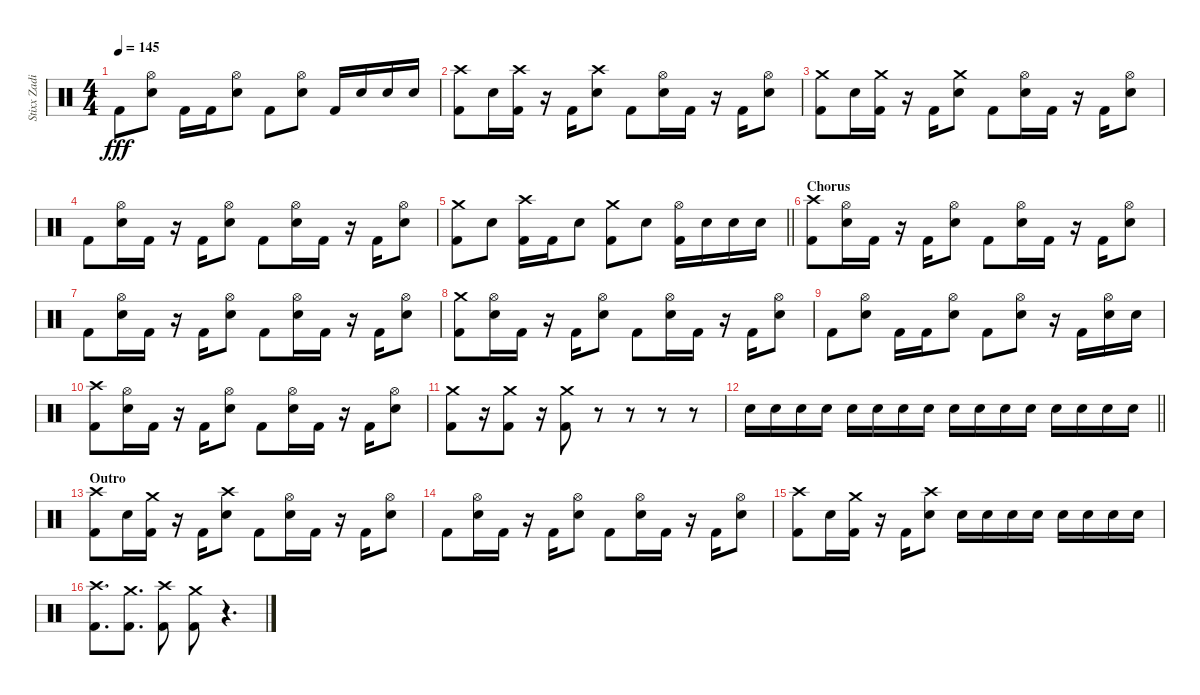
\track ("Stixx Zadina (Sticks it in ya)" "Stixx Zadi") {instrument percussion}
\staff {score}
\articulation defaults
\ts (4 4)
\tempo 145
\clef neutral
\ks c "Kick (hit) 2".8{dy fff}
("Hi-Hat (open)" "Electric Snare (hit)").8 "Kick (hit) 2".16 "Kick (hit) 2".16 ("Hi-Hat (open)" "Electric Snare (hit)").8 "Kick (hit) 2".8 ("Hi-Hat (open)" "Electric Snare (hit)").8 "Kick (hit) 2".16 "Electric Snare (hit)".16 "Electric Snare (hit)".16 "Electric Snare (hit)".16 |
("Crash high (hit)" "Kick (hit) 2").8 "Electric Snare (hit)".16 ("Crash high (hit)" "Kick (hit) 2").16 r.16 "Kick (hit) 2".16 ("Crash high (hit)" "Electric Snare (hit)").8 "Kick (hit) 2".8 ("Hi-Hat (open)" "Electric Snare (hit)").16 "Kick (hit) 2".16 r.16 "Kick (hit) 2".16 ("Hi-Hat (open)" "Electric Snare (hit)").8 |
("Crash medium (hit)" "Kick (hit) 2").8 "Electric Snare (hit)".16 ("Crash medium (hit)" "Kick (hit) 2").16 r.16 "Kick (hit) 2".16 ("Crash medium (hit)" "Electric Snare (hit)").8 "Kick (hit) 2".8 ("Hi-Hat (open)" "Electric Snare (hit)").16 "Kick (hit) 2".16 r.16 "Kick (hit) 2".16 ("Hi-Hat (open)" "Electric Snare (hit)").8 |
"Kick (hit) 2".8 ("Hi-Hat (open)" "Electric Snare (hit)").16 "Kick (hit) 2".16 r.16 "Kick (hit) 2".16 ("Hi-Hat (open)" "Electric Snare (hit)").8 "Kick (hit) 2".8 ("Hi-Hat (open)" "Electric Snare (hit)").16 "Kick (hit) 2".16 r.16 "Kick (hit) 2".16 ("Hi-Hat (open)" "Electric Snare (hit)").8 |
\barLineRight lightlight
("Crash medium (hit)" "Kick (hit) 2").8 "Electric Snare (hit)".8 ("Crash high (hit)" "Kick (hit) 2").16 "Kick (hit) 2".16 "Electric Snare (hit)".8 ("Crash medium (hit)" "Kick (hit) 2").8 "Electric Snare (hit)".8 ("Hi-Hat (open)" "Kick (hit) 2").16 "Electric Snare (hit)".16 "Electric Snare (hit)".16 "Electric Snare (hit)".16 |
\section ("" "Chorus")
("Crash high (hit)" "Kick (hit) 2").8 ("Hi-Hat (open)" "Electric Snare (hit)").16 "Kick (hit) 2".16 r.16 "Kick (hit) 2".16 ("Hi-Hat (open)" "Electric Snare (hit)").8 "Kick (hit) 2".8 ("Hi-Hat (open)" "Electric Snare (hit)").16 "Kick (hit) 2".16 r.16 "Kick (hit) 2".16 ("Hi-Hat (open)" "Electric Snare (hit)").8 |
"Kick (hit) 2".8 ("Hi-Hat (open)" "Electric Snare (hit)").16 "Kick (hit) 2".16 r.16 "Kick (hit) 2".16 ("Hi-Hat (open)" "Electric Snare (hit)").8 "Kick (hit) 2".8 ("Hi-Hat (open)" "Electric Snare (hit)").16 "Kick (hit) 2".16 r.16 "Kick (hit) 2".16 ("Hi-Hat (open)" "Electric Snare (hit)").8 |
("Crash medium (hit)" "Kick (hit) 2").8 ("Hi-Hat (open)" "Electric Snare (hit)").16 "Kick (hit) 2".16 r.16 "Kick (hit) 2".16 ("Hi-Hat (open)" "Electric Snare (hit)").8 "Kick (hit) 2".8 ("Hi-Hat (open)" "Electric Snare (hit)").16 "Kick (hit) 2".16 r.16 "Kick (hit) 2".16 ("Hi-Hat (open)" "Electric Snare (hit)").8 |
"Kick (hit) 2".8 ("Hi-Hat (open)" "Electric Snare (hit)").8 "Kick (hit) 2".16 "Kick (hit) 2".16 ("Hi-Hat (open)" "Electric Snare (hit)").8 "Kick (hit) 2".8 ("Hi-Hat (open)" "Electric Snare (hit)").8 r.16 "Kick (hit) 2".16 ("Hi-Hat (open)" "Electric Snare (hit)").16 "Electric Snare (hit)".16 |
("Crash high (hit)" "Kick (hit) 2").8 ("Hi-Hat (open)" "Electric Snare (hit)").16 "Kick (hit) 2".16 r.16 "Kick (hit) 2".16 ("Hi-Hat (open)" "Electric Snare (hit)").8 "Kick (hit) 2".8 ("Hi-Hat (open)" "Electric Snare (hit)").16 "Kick (hit) 2".16 r.16 "Kick (hit) 2".16 ("Hi-Hat (open)" "Electric Snare (hit)").8 |
("Crash medium (hit)" "Kick (hit) 2").8 r.16 ("Crash medium (hit)" "Kick (hit) 2").8 r.16 ("Crash medium (hit)" "Kick (hit) 2").8 r.8 r.8 r.8 r.8 |
\barLineRight lightlight "Electric Snare (hit)".16 "Electric Snare (hit)".16 "Electric Snare (hit)".16 "Electric Snare (hit)".16 "Electric Snare (hit)".16 "Electric Snare (hit)".16 "Electric Snare (hit)".16 "Electric Snare (hit)".16 "Electric Snare (hit)".16 "Electric Snare (hit)".16 "Electric Snare (hit)".16 "Electric Snare (hit)".16 "Electric Snare (hit)".16 "Electric Snare (hit)".16 "Electric Snare (hit)".16 "Electric Snare (hit)".16
|
\section ("" "Outro")
("Crash high (hit)" "Kick (hit) 2").8 "Electric Snare (hit)".16 ("Crash medium (hit)" "Kick (hit) 2").16 r.16 "Kick (hit) 2".16 ("Crash high (hit)" "Electric Snare (hit)").8 "Kick (hit) 2".8 ("Hi-Hat (open)" "Electric Snare (hit)").16 "Kick (hit) 2".16 r.16 "Kick (hit) 2".16 ("Hi-Hat (open)" "Electric Snare (hit)").8 |
"Kick (hit) 2".8 ("Hi-Hat (open)" "Electric Snare (hit)").16 "Kick (hit) 2".16 r.16 "Kick (hit) 2".16 ("Hi-Hat (open)" "Electric Snare (hit)").8 "Kick (hit) 2".8 ("Hi-Hat (open)" "Electric Snare (hit)").16 "Kick (hit) 2".16 r.16 "Kick (hit) 2".16 ("Hi-Hat (open)" "Electric Snare (hit)").8 |
("Crash high (hit)" "Kick (hit) 2").8 "Electric Snare (hit)".16 ("Crash medium (hit)" "Kick (hit) 2").16 r.16 "Kick (hit) 2".16 ("Crash high (hit)" "Electric Snare (hit)").8 "Electric Snare (hit)".16 "Electric Snare (hit)".16 "Electric Snare (hit)".16 "Electric Snare (hit)".16 "Electric Snare (hit)".16 "Electric Snare (hit)".16 "Electric Snare (hit)".16 "Electric Snare (hit)".16 |
("Crash high (hit)" "Kick (hit) 2").8{d} ("Crash medium (hit)" "Kick (hit) 2").8{d} ("Crash high (hit)" "Kick (hit) 2").8 ("Crash medium (hit)" "Kick (hit) 2").8 r.4{d}
